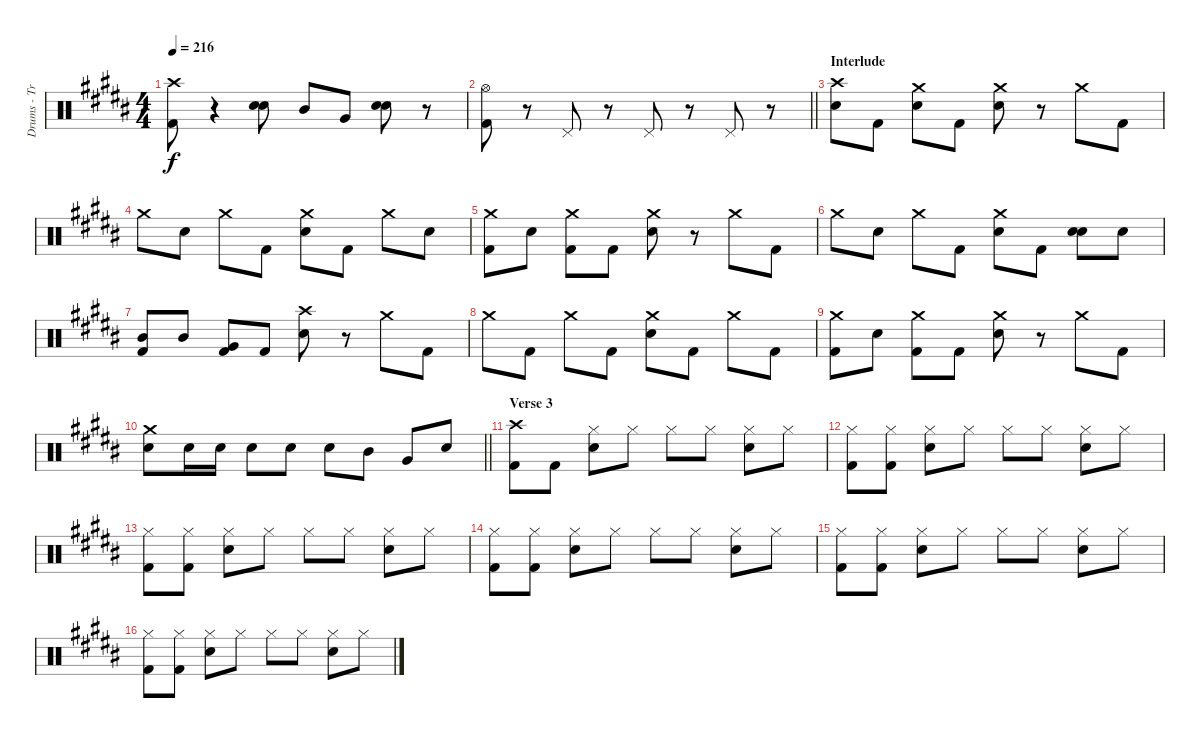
\track ("Drums - Travis Barker" "Drums - Tr") {instrument percussion}
\staff {score}
\articulation defaults
\ts (4 4)
\tempo 216
\clef neutral
\ks b
("Kick (hit) 2" "Crash high (hit)").8{dy f} r.4 ("Snare (hit) 2" "Snare (hit) 2").8 "Mid Tom (hit)".8 "Very Low Tom (hit)".8 ("Snare (hit) 2" "Snare (hit) 2").8 r.8 |
\barLineRight lightlight
("Kick (hit) 2" "Hi-Hat (open)").8 r.8 "Pedal Hi-Hat (hit)".8 r.8 "Pedal Hi-Hat (hit)".8 r.8 "Pedal Hi-Hat (hit)".8 r.8 |
\section ("" "Interlude")
("Snare (hit) 2" "Crash high (hit)").8 "Kick (hit) 2".8 ("Snare (hit) 2" "Crash medium (hit)").8 "Kick (hit) 2".8 ("Snare (hit) 2" "Crash medium (hit)").8 r.8 "Crash medium (hit)".8 "Kick (hit) 2".8 |
"Crash medium (hit)".8 "Snare (hit) 2".8 "Crash medium (hit)".8 "Kick (hit) 2".8 ("Snare (hit) 2" "Crash medium (hit)").8 "Kick (hit) 2".8 "Crash medium (hit)".8 "Snare (hit) 2".8 |
("Kick (hit) 2" "Crash medium (hit)").8 "Snare (hit) 2".8 ("Kick (hit) 2" "Crash medium (hit)").8 "Kick (hit) 2".8 ("Snare (hit) 2" "Crash medium (hit)").8 r.8 "Crash medium (hit)".8 "Kick (hit) 2".8 |
"Crash medium (hit)".8 "Snare (hit) 2".8 "Crash medium (hit)".8 "Kick (hit) 2".8 ("Snare (hit) 2" "Crash medium (hit)").8 "Kick (hit) 2".8 ("Snare (hit) 2" "Snare (hit) 2").8 "Snare (hit) 2".8 |
("Kick (hit) 2" "Mid Tom (hit)").8 "Mid Tom (hit)".8 ("Kick (hit) 2" "Very Low Tom (hit)").8 "Kick (hit) 2".8 ("Snare (hit) 2" "Crash high (hit)").8 r.8 "Crash medium (hit)".8 "Kick (hit) 2".8 |
"Crash medium (hit)".8 "Kick (hit) 2".8 "Crash medium (hit)".8 "Kick (hit) 2".8 ("Snare (hit) 2" "Crash medium (hit)").8 "Kick (hit) 2".8 "Crash medium (hit)".8 "Kick (hit) 2".8 |
("Kick (hit) 2" "Crash medium (hit)").8 "Snare (hit) 2".8 ("Kick (hit) 2" "Crash medium (hit)").8 "Kick (hit) 2".8 ("Snare (hit) 2" "Crash medium (hit)").8 r.8 "Crash medium (hit)".8 "Kick (hit) 2".8 |
\barLineRight lightlight
("Snare (hit) 2" "Crash medium (hit)").8 "Snare (hit) 2".16 "Snare (hit) 2".16 "Snare (hit) 2".8 "Snare (hit) 2".8 "Snare (hit) 2".8 "Mid Tom (hit)".8 "Very Low Tom (hit)".8 "Snare (hit) 2".8 |
\section ("" "Verse 3")
("Kick (hit) 2" "Crash high (hit)").8 "Kick (hit) 2".8 ("Snare (hit) 2" "Hi-Hat (closed)").8 "Hi-Hat (closed)".8 "Hi-Hat (closed)".8 "Hi-Hat (closed)".8 ("Snare (hit) 2" "Hi-Hat (closed)").8 "Hi-Hat (closed)".8 |
("Kick (hit) 2" "Hi-Hat (closed)").8 ("Kick (hit) 2" "Hi-Hat (closed)").8 ("Snare (hit) 2" "Hi-Hat (closed)").8 "Hi-Hat (closed)".8 "Hi-Hat (closed)".8 "Hi-Hat (closed)".8 ("Snare (hit) 2" "Hi-Hat (closed)").8 "Hi-Hat (closed)".8 |
("Kick (hit) 2" "Hi-Hat (closed)").8 ("Kick (hit) 2" "Hi-Hat (closed)").8 ("Snare (hit) 2" "Hi-Hat (closed)").8 "Hi-Hat (closed)".8 "Hi-Hat (closed)".8 "Hi-Hat (closed)".8 ("Snare (hit) 2" "Hi-Hat (closed)").8 "Hi-Hat (closed)".8 |
("Kick (hit) 2" "Hi-Hat (closed)").8 ("Kick (hit) 2" "Hi-Hat (closed)").8 ("Snare (hit) 2" "Hi-Hat (closed)").8 "Hi-Hat (closed)".8 "Hi-Hat (closed)".8 "Hi-Hat (closed)".8 ("Snare (hit) 2" "Hi-Hat (closed)").8 "Hi-Hat (closed)".8 |
("Kick (hit) 2" "Hi-Hat (closed)").8 ("Kick (hit) 2" "Hi-Hat (closed)").8 ("Snare (hit) 2" "Hi-Hat (closed)").8 "Hi-Hat (closed)".8 "Hi-Hat (closed)".8 "Hi-Hat (closed)".8 ("Snare (hit) 2" "Hi-Hat (closed)").8 "Hi-Hat (closed)".8 |
("Kick (hit) 2" "Hi-Hat (closed)").8 ("Kick (hit) 2" "Hi-Hat (closed)").8 ("Snare (hit) 2" "Hi-Hat (closed)").8 "Hi-Hat (closed)".8 "Hi-Hat (closed)".8 "Hi-Hat (closed)".8 ("Snare (hit) 2" "Hi-Hat (closed)").8 "Hi-Hat (closed)".8
